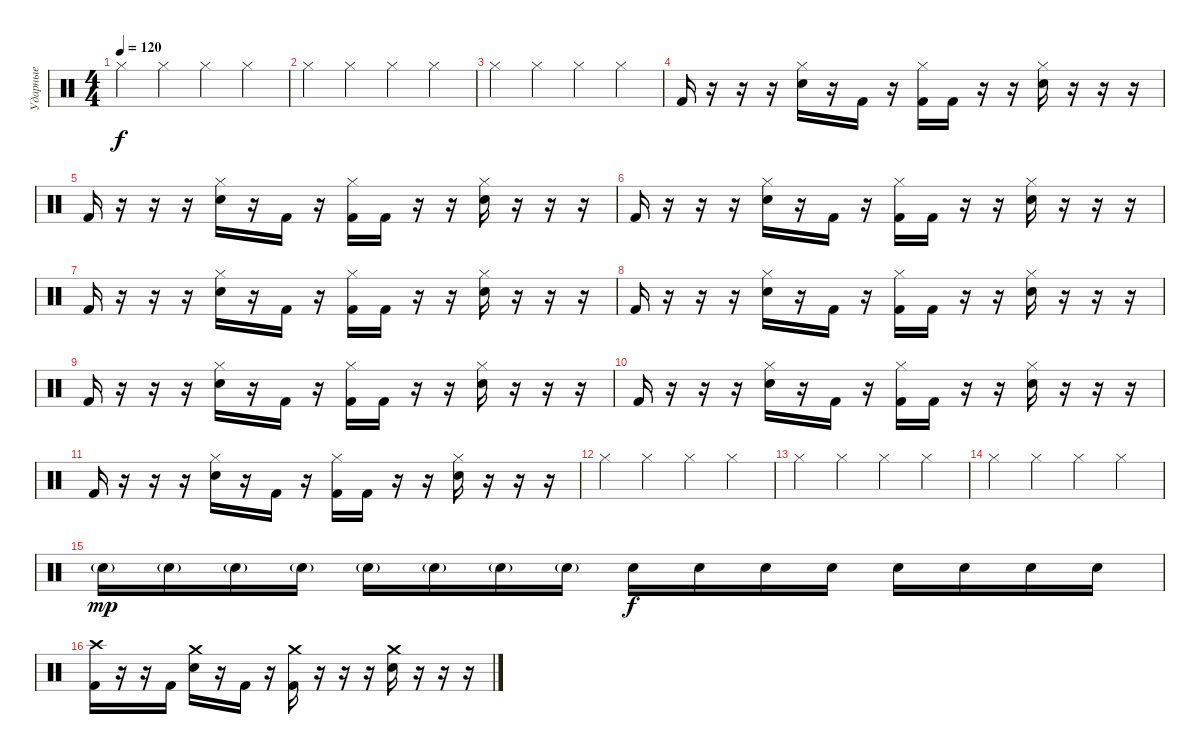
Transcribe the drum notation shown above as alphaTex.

\track ("Ударные" "Ударные") {instrument percussion}
\staff
\articulation defaults
\ts (4 4)
\tempo 120
\clef neutral
\ks c "Hi-Hat (closed)".4{dy f} "Hi-Hat (closed)".4 "Hi-Hat (closed)".4 "Hi-Hat (closed)".4
|
"Hi-Hat (closed)".4 "Hi-Hat (closed)".4 "Hi-Hat (closed)".4 "Hi-Hat (closed)".4 |
"Hi-Hat (closed)".4 "Hi-Hat (closed)".4 "Hi-Hat (closed)".4 "Hi-Hat (closed)".4 |
"Kick (hit) 2".16 r.16 r.16 r.16 ("Hi-Hat (closed)" "Electric Snare (hit)").16 r.16 "Kick (hit) 2".16 r.16 ("Hi-Hat (closed)" "Kick (hit) 2").16 "Kick (hit) 2".16 r.16 r.16 ("Hi-Hat (closed)" "Electric Snare (hit)").16 r.16 r.16 r.16 |
"Kick (hit) 2".16 r.16 r.16 r.16 ("Hi-Hat (closed)" "Electric Snare (hit)").16 r.16 "Kick (hit) 2".16 r.16 ("Hi-Hat (closed)" "Kick (hit) 2").16 "Kick (hit) 2".16 r.16 r.16 ("Hi-Hat (closed)" "Electric Snare (hit)").16 r.16 r.16 r.16 |
"Kick (hit) 2".16 r.16 r.16 r.16 ("Hi-Hat (closed)" "Electric Snare (hit)").16 r.16 "Kick (hit) 2".16 r.16 ("Hi-Hat (closed)" "Kick (hit) 2").16 "Kick (hit) 2".16 r.16 r.16 ("Hi-Hat (closed)" "Electric Snare (hit)").16 r.16 r.16 r.16 |
"Kick (hit) 2".16 r.16 r.16 r.16 ("Hi-Hat (closed)" "Electric Snare (hit)").16 r.16 "Kick (hit) 2".16 r.16 ("Hi-Hat (closed)" "Kick (hit) 2").16 "Kick (hit) 2".16 r.16 r.16 ("Hi-Hat (closed)" "Electric Snare (hit)").16 r.16 r.16 r.16 |
"Kick (hit) 2".16 r.16 r.16 r.16 ("Hi-Hat (closed)" "Electric Snare (hit)").16 r.16 "Kick (hit) 2".16 r.16 ("Hi-Hat (closed)" "Kick (hit) 2").16 "Kick (hit) 2".16 r.16 r.16 ("Hi-Hat (closed)" "Electric Snare (hit)").16 r.16 r.16 r.16 |
"Kick (hit) 2".16 r.16 r.16 r.16 ("Hi-Hat (closed)" "Electric Snare (hit)").16 r.16 "Kick (hit) 2".16 r.16 ("Hi-Hat (closed)" "Kick (hit) 2").16 "Kick (hit) 2".16 r.16 r.16 ("Hi-Hat (closed)" "Electric Snare (hit)").16 r.16 r.16 r.16 |
"Kick (hit) 2".16 r.16 r.16 r.16 ("Hi-Hat (closed)" "Electric Snare (hit)").16 r.16 "Kick (hit) 2".16 r.16 ("Hi-Hat (closed)" "Kick (hit) 2").16 "Kick (hit) 2".16 r.16 r.16 ("Hi-Hat (closed)" "Electric Snare (hit)").16 r.16 r.16 r.16 |
"Kick (hit) 2".16 r.16 r.16 r.16 ("Hi-Hat (closed)" "Electric Snare (hit)").16 r.16 "Kick (hit) 2".16 r.16 ("Hi-Hat (closed)" "Kick (hit) 2").16 "Kick (hit) 2".16 r.16 r.16 ("Hi-Hat (closed)" "Electric Snare (hit)").16 r.16 r.16 r.16 |
"Hi-Hat (closed)".4 "Hi-Hat (closed)".4 "Hi-Hat (closed)".4 "Hi-Hat (closed)".4 |
"Hi-Hat (closed)".4 "Hi-Hat (closed)".4 "Hi-Hat (closed)".4 "Hi-Hat (closed)".4 |
"Hi-Hat (closed)".4 "Hi-Hat (closed)".4 "Hi-Hat (closed)".4 "Hi-Hat (closed)".4 |
"Electric Snare (hit)"{g}.16{dy mp} "Electric Snare (hit)"{g}.16 "Electric Snare (hit)"{g}.16 "Electric Snare (hit)"{g}.16 "Electric Snare (hit)"{g}.16 "Electric Snare (hit)"{g}.16 "Electric Snare (hit)"{g}.16 "Electric Snare (hit)"{g}.16 "Electric Snare (hit)".16{dy f} "Electric Snare (hit)".16 "Electric Snare (hit)".16 "Electric Snare (hit)".16 "Electric Snare (hit)".16 "Electric Snare (hit)".16 "Electric Snare (hit)".16 "Electric Snare (hit)".16 |
("Crash high (hit)" "Kick (hit) 2").16 r.16 r.16 "Kick (hit) 2".16 ("Crash medium (hit)" "Electric Snare (hit)").16 r.16 "Kick (hit) 2".16 r.16 ("Crash medium (hit)" "Kick (hit) 2").16 r.16 r.16 r.16 ("Crash medium (hit)" "Electric Snare (hit)").16 r.16 r.16 r.16
